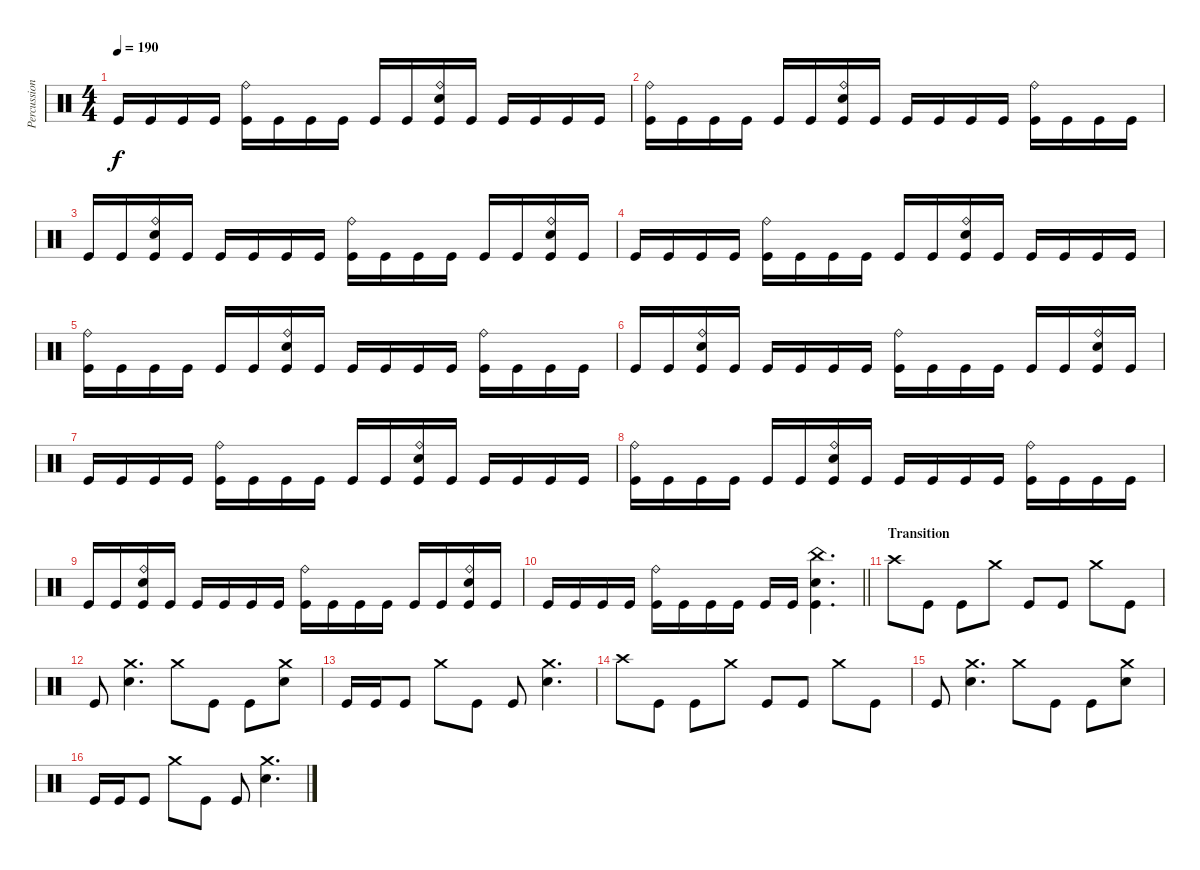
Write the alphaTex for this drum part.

\track ("Percussion" "Percussion") {instrument percussion}
\staff {score}
\articulation defaults
\ts (4 4)
\tempo 190
\clef neutral
\ks c "Kick (hit)".16{dy f} "Kick (hit)".16 "Kick (hit)".16 "Kick (hit)".16
("Ride (bell)" "Kick (hit)").16 "Kick (hit)".16 "Kick (hit)".16 "Kick (hit)".16 "Kick (hit)".16 "Kick (hit)".16 ("Ride (bell)" "Snare (hit) 2" "Kick (hit)").16 "Kick (hit)".16 "Kick (hit)".16 "Kick (hit)".16 "Kick (hit)".16 "Kick (hit)".16 |
("Ride (bell)" "Kick (hit)").16 "Kick (hit)".16 "Kick (hit)".16 "Kick (hit)".16 "Kick (hit)".16 "Kick (hit)".16 ("Ride (bell)" "Snare (hit) 2" "Kick (hit)").16 "Kick (hit)".16 "Kick (hit)".16 "Kick (hit)".16 "Kick (hit)".16 "Kick (hit)".16 ("Ride (bell)" "Kick (hit)").16 "Kick (hit)".16 "Kick (hit)".16 "Kick (hit)".16 |
"Kick (hit)".16 "Kick (hit)".16 ("Ride (bell)" "Snare (hit) 2" "Kick (hit)").16 "Kick (hit)".16 "Kick (hit)".16 "Kick (hit)".16 "Kick (hit)".16 "Kick (hit)".16 ("Ride (bell)" "Kick (hit)").16 "Kick (hit)".16 "Kick (hit)".16 "Kick (hit)".16 "Kick (hit)".16 "Kick (hit)".16 ("Ride (bell)" "Snare (hit) 2" "Kick (hit)").16 "Kick (hit)".16 |
"Kick (hit)".16 "Kick (hit)".16 "Kick (hit)".16 "Kick (hit)".16 ("Ride (bell)" "Kick (hit)").16 "Kick (hit)".16 "Kick (hit)".16 "Kick (hit)".16 "Kick (hit)".16 "Kick (hit)".16 ("Ride (bell)" "Snare (hit) 2" "Kick (hit)").16 "Kick (hit)".16 "Kick (hit)".16 "Kick (hit)".16 "Kick (hit)".16 "Kick (hit)".16 |
("Ride (bell)" "Kick (hit)").16 "Kick (hit)".16 "Kick (hit)".16 "Kick (hit)".16 "Kick (hit)".16 "Kick (hit)".16 ("Ride (bell)" "Snare (hit) 2" "Kick (hit)").16 "Kick (hit)".16 "Kick (hit)".16 "Kick (hit)".16 "Kick (hit)".16 "Kick (hit)".16 ("Ride (bell)" "Kick (hit)").16 "Kick (hit)".16 "Kick (hit)".16 "Kick (hit)".16 |
"Kick (hit)".16 "Kick (hit)".16 ("Ride (bell)" "Snare (hit) 2" "Kick (hit)").16 "Kick (hit)".16 "Kick (hit)".16 "Kick (hit)".16 "Kick (hit)".16 "Kick (hit)".16 ("Ride (bell)" "Kick (hit)").16 "Kick (hit)".16 "Kick (hit)".16 "Kick (hit)".16 "Kick (hit)".16 "Kick (hit)".16 ("Ride (bell)" "Snare (hit) 2" "Kick (hit)").16 "Kick (hit)".16 |
"Kick (hit)".16 "Kick (hit)".16 "Kick (hit)".16 "Kick (hit)".16 ("Ride (bell)" "Kick (hit)").16 "Kick (hit)".16 "Kick (hit)".16 "Kick (hit)".16 "Kick (hit)".16 "Kick (hit)".16 ("Ride (bell)" "Snare (hit) 2" "Kick (hit)").16 "Kick (hit)".16 "Kick (hit)".16 "Kick (hit)".16 "Kick (hit)".16 "Kick (hit)".16 |
("Ride (bell)" "Kick (hit)").16 "Kick (hit)".16 "Kick (hit)".16 "Kick (hit)".16 "Kick (hit)".16 "Kick (hit)".16 ("Ride (bell)" "Snare (hit) 2" "Kick (hit)").16 "Kick (hit)".16 "Kick (hit)".16 "Kick (hit)".16 "Kick (hit)".16 "Kick (hit)".16 ("Ride (bell)" "Kick (hit)").16 "Kick (hit)".16 "Kick (hit)".16 "Kick (hit)".16 |
"Kick (hit)".16 "Kick (hit)".16 ("Ride (bell)" "Snare (hit) 2" "Kick (hit)").16 "Kick (hit)".16 "Kick (hit)".16 "Kick (hit)".16 "Kick (hit)".16 "Kick (hit)".16 ("Ride (bell)" "Kick (hit)").16 "Kick (hit)".16 "Kick (hit)".16 "Kick (hit)".16 "Kick (hit)".16 "Kick (hit)".16 ("Ride (bell)" "Snare (hit) 2" "Kick (hit)").16 "Kick (hit)".16 |
\barLineRight lightlight "Kick (hit)".16 "Kick (hit)".16 "Kick (hit)".16 "Kick (hit)".16
("Ride (bell)" "Kick (hit)").16 "Kick (hit)".16 "Kick (hit)".16 "Kick (hit)".16 "Kick (hit)".16 "Kick (hit)".16 ("China (hit)" "Snare (hit) 2" "Kick (hit)").4{d} |
\section ("" "Transition")
"Crash high (hit)".8 "Kick (hit)".8 "Kick (hit)".8 "Crash medium (hit)".8 "Kick (hit)".8 "Kick (hit)".8 "Crash medium (hit)".8 "Kick (hit)".8 |
"Kick (hit)".8 ("Crash medium (hit)" "Snare (hit) 2").4{d} "Crash medium (hit)".8 "Kick (hit)".8 "Kick (hit)".8 ("Crash medium (hit)" "Snare (hit) 2").8 |
"Kick (hit)".16 "Kick (hit)".16 "Kick (hit)".8 "Crash medium (hit)".8 "Kick (hit)".8 "Kick (hit)".8 ("Crash medium (hit)" "Snare (hit) 2").4{d} |
"Crash high (hit)".8 "Kick (hit)".8 "Kick (hit)".8 "Crash medium (hit)".8 "Kick (hit)".8 "Kick (hit)".8 "Crash medium (hit)".8 "Kick (hit)".8 |
"Kick (hit)".8 ("Crash medium (hit)" "Snare (hit) 2").4{d} "Crash medium (hit)".8 "Kick (hit)".8 "Kick (hit)".8 ("Crash medium (hit)" "Snare (hit) 2").8 |
"Kick (hit)".16 "Kick (hit)".16 "Kick (hit)".8 "Crash medium (hit)".8 "Kick (hit)".8 "Kick (hit)".8 ("Crash medium (hit)" "Snare (hit) 2").4{d}
